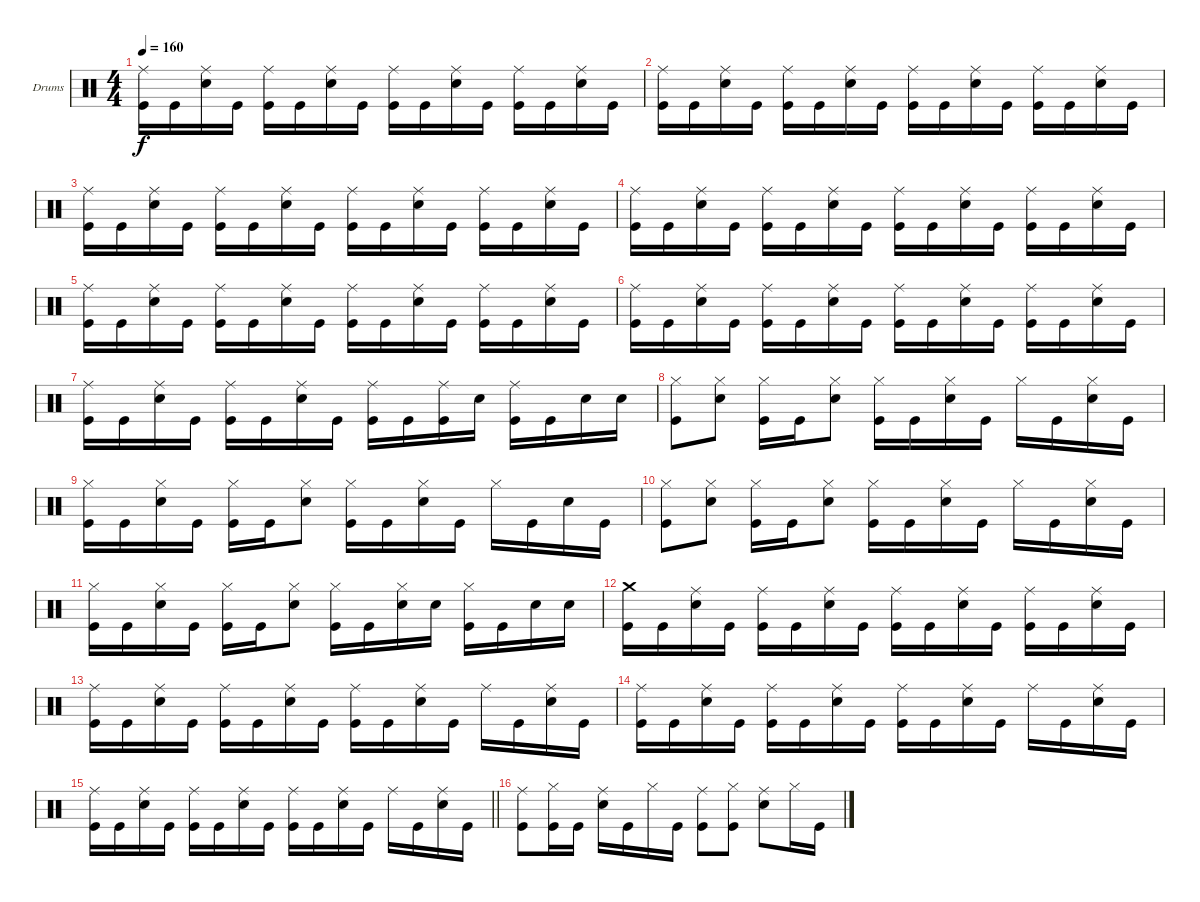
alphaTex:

\defaultSystemsLayout 4
\bracketExtendMode groupsimilarinstruments
\firstSystemTrackNameOrientation horizontal
\otherSystemsTrackNameOrientation horizontal
\track ("Drums" "Drums") {instrument percussion}
\staff {score}
\articulation defaults
\ts (4 4)
\tempo 160
\clef neutral
\ks aminor
("Kick (hit)" "Ride (middle)").16{dy f} "Kick (hit)".16 ("Snare (hit) 2" "Ride (middle)").16 "Kick (hit)".16 ("Kick (hit)" "Ride (middle)").16 "Kick (hit)".16 ("Snare (hit) 2" "Ride (middle)").16 "Kick (hit)".16 ("Kick (hit)" "Ride (middle)").16 "Kick (hit)".16 ("Snare (hit) 2" "Ride (middle)").16 "Kick (hit)".16 ("Kick (hit)" "Ride (middle)").16 "Kick (hit)".16 ("Snare (hit) 2" "Ride (middle)").16 "Kick (hit)".16 |
("Kick (hit)" "Ride (middle)").16 "Kick (hit)".16 ("Snare (hit) 2" "Ride (middle)").16 "Kick (hit)".16 ("Kick (hit)" "Ride (middle)").16 "Kick (hit)".16 ("Snare (hit) 2" "Ride (middle)").16 "Kick (hit)".16 ("Kick (hit)" "Ride (middle)").16 "Kick (hit)".16 ("Snare (hit) 2" "Ride (middle)").16 "Kick (hit)".16 ("Kick (hit)" "Ride (middle)").16 "Kick (hit)".16 ("Snare (hit) 2" "Ride (middle)").16 "Kick (hit)".16 |
("Kick (hit)" "Ride (middle)").16 "Kick (hit)".16 ("Snare (hit) 2" "Ride (middle)").16 "Kick (hit)".16 ("Kick (hit)" "Ride (middle)").16 "Kick (hit)".16 ("Snare (hit) 2" "Ride (middle)").16 "Kick (hit)".16 ("Kick (hit)" "Ride (middle)").16 "Kick (hit)".16 ("Snare (hit) 2" "Ride (middle)").16 "Kick (hit)".16 ("Kick (hit)" "Ride (middle)").16 "Kick (hit)".16 ("Snare (hit) 2" "Ride (middle)").16 "Kick (hit)".16 |
("Kick (hit)" "Ride (middle)").16 "Kick (hit)".16 ("Snare (hit) 2" "Ride (middle)").16 "Kick (hit)".16 ("Kick (hit)" "Ride (middle)").16 "Kick (hit)".16 ("Snare (hit) 2" "Ride (middle)").16 "Kick (hit)".16 ("Kick (hit)" "Ride (middle)").16 "Kick (hit)".16 ("Snare (hit) 2" "Ride (middle)").16 "Kick (hit)".16 ("Kick (hit)" "Ride (middle)").16 "Kick (hit)".16 ("Snare (hit) 2" "Ride (middle)").16 "Kick (hit)".16 |
("Kick (hit)" "Ride (middle)").16 "Kick (hit)".16 ("Snare (hit) 2" "Ride (middle)").16 "Kick (hit)".16 ("Kick (hit)" "Ride (middle)").16 "Kick (hit)".16 ("Snare (hit) 2" "Ride (middle)").16 "Kick (hit)".16 ("Kick (hit)" "Ride (middle)").16 "Kick (hit)".16 ("Snare (hit) 2" "Ride (middle)").16 "Kick (hit)".16 ("Kick (hit)" "Ride (middle)").16 "Kick (hit)".16 ("Snare (hit) 2" "Ride (middle)").16 "Kick (hit)".16 |
("Kick (hit)" "Ride (middle)").16 "Kick (hit)".16 ("Snare (hit) 2" "Ride (middle)").16 "Kick (hit)".16 ("Kick (hit)" "Ride (middle)").16 "Kick (hit)".16 ("Snare (hit) 2" "Ride (middle)").16 "Kick (hit)".16 ("Kick (hit)" "Ride (middle)").16 "Kick (hit)".16 ("Snare (hit) 2" "Ride (middle)").16 "Kick (hit)".16 ("Kick (hit)" "Ride (middle)").16 "Kick (hit)".16 ("Snare (hit) 2" "Ride (middle)").16 "Kick (hit)".16 |
("Kick (hit)" "Ride (middle)").16 "Kick (hit)".16 ("Snare (hit) 2" "Ride (middle)").16 "Kick (hit)".16 ("Kick (hit)" "Ride (middle)").16 "Kick (hit)".16 ("Snare (hit) 2" "Ride (middle)").16 "Kick (hit)".16 ("Ride (middle)" "Kick (hit)").16 "Kick (hit)".16 ("Kick (hit)" "Ride (middle)").16 "Snare (hit) 2".16 ("Kick (hit)" "Ride (middle)").16 "Kick (hit)".16 "Snare (hit) 2".16 "Snare (hit) 2".16 |
("Kick (hit)" "Hi-Hat (closed)").8 ("Snare (hit) 2" "Hi-Hat (closed)").8 ("Kick (hit)" "Hi-Hat (closed)").16 "Kick (hit)".16 ("Snare (hit) 2" "Hi-Hat (closed)").8 ("Kick (hit)" "Hi-Hat (closed)").16 "Kick (hit)".16 ("Snare (hit) 2" "Hi-Hat (closed)").16 "Kick (hit)".16 "Hi-Hat (closed)".16 "Kick (hit)".16 ("Snare (hit) 2" "Hi-Hat (closed)").16 "Kick (hit)".16 |
("Kick (hit)" "Hi-Hat (closed)").16 "Kick (hit)".16 ("Snare (hit) 2" "Hi-Hat (closed)").16 "Kick (hit)".16 ("Kick (hit)" "Hi-Hat (closed)").16 "Kick (hit)".16 ("Snare (hit) 2" "Hi-Hat (closed)").8 ("Kick (hit)" "Hi-Hat (closed)").16 "Kick (hit)".16 ("Snare (hit) 2" "Hi-Hat (closed)").16 "Kick (hit)".16 "Hi-Hat (closed)".16 "Kick (hit)".16 "Snare (hit) 2".16 "Kick (hit)".16 |
("Kick (hit)" "Hi-Hat (closed)").8 ("Snare (hit) 2" "Hi-Hat (closed)").8 ("Kick (hit)" "Hi-Hat (closed)").16 "Kick (hit)".16 ("Snare (hit) 2" "Hi-Hat (closed)").8 ("Kick (hit)" "Hi-Hat (closed)").16 "Kick (hit)".16 ("Snare (hit) 2" "Hi-Hat (closed)").16 "Kick (hit)".16 "Hi-Hat (closed)".16 "Kick (hit)".16 ("Snare (hit) 2" "Hi-Hat (closed)").16 "Kick (hit)".16 |
("Kick (hit)" "Hi-Hat (closed)").16 "Kick (hit)".16 ("Snare (hit) 2" "Hi-Hat (closed)").16 "Kick (hit)".16 ("Kick (hit)" "Hi-Hat (closed)").16 "Kick (hit)".16 ("Snare (hit) 2" "Hi-Hat (closed)").8 ("Kick (hit)" "Hi-Hat (closed)").16 "Kick (hit)".16 ("Snare (hit) 2" "Hi-Hat (closed)").16 "Snare (hit) 2".16 ("Hi-Hat (closed)" "Kick (hit)").16 "Kick (hit)".16 "Snare (hit) 2".16 "Snare (hit) 2".16 |
("Kick (hit)" "Crash medium (hit)").16 "Kick (hit)".16 ("Snare (hit) 2" "Ride (middle)").16 "Kick (hit)".16 ("Kick (hit)" "Ride (middle)").16 "Kick (hit)".16 ("Snare (hit) 2" "Ride (middle)").16 "Kick (hit)".16 ("Kick (hit)" "Ride (middle)").16 "Kick (hit)".16 ("Snare (hit) 2" "Ride (middle)").16 "Kick (hit)".16 ("Kick (hit)" "Ride (middle)").16 "Kick (hit)".16 ("Snare (hit) 2" "Ride (middle)").16 "Kick (hit)".16 |
("Kick (hit)" "Ride (middle)").16 "Kick (hit)".16 ("Snare (hit) 2" "Ride (middle)").16 "Kick (hit)".16 ("Kick (hit)" "Ride (middle)").16 "Kick (hit)".16 ("Snare (hit) 2" "Ride (middle)").16 "Kick (hit)".16 ("Kick (hit)" "Ride (middle)").16 "Kick (hit)".16 ("Snare (hit) 2" "Ride (middle)").16 "Kick (hit)".16 "Ride (middle)".16 "Kick (hit)".16 ("Snare (hit) 2" "Ride (middle)").16 "Kick (hit)".16 |
("Kick (hit)" "Ride (middle)").16 "Kick (hit)".16 ("Snare (hit) 2" "Ride (middle)").16 "Kick (hit)".16 ("Kick (hit)" "Ride (middle)").16 "Kick (hit)".16 ("Snare (hit) 2" "Ride (middle)").16 "Kick (hit)".16 ("Kick (hit)" "Ride (middle)").16 "Kick (hit)".16 ("Snare (hit) 2" "Ride (middle)").16 "Kick (hit)".16 "Ride (middle)".16 "Kick (hit)".16 ("Snare (hit) 2" "Ride (middle)").16 "Kick (hit)".16 |
\barLineRight lightlight
("Kick (hit)" "Ride (middle)").16 "Kick (hit)".16 ("Snare (hit) 2" "Ride (middle)").16 "Kick (hit)".16 ("Kick (hit)" "Ride (middle)").16 "Kick (hit)".16 ("Snare (hit) 2" "Ride (middle)").16 "Kick (hit)".16 ("Kick (hit)" "Ride (middle)").16 "Kick (hit)".16 ("Snare (hit) 2" "Ride (middle)").16 "Kick (hit)".16 "Ride (middle)".16 "Kick (hit)".16 ("Snare (hit) 2" "Ride (middle)").16 "Kick (hit)".16 |
("Kick (hit)" "Ride (middle)").8 ("Kick (hit)" "Hi-Hat (closed)").16 "Kick (hit)".16 ("Snare (hit) 2" "Ride (middle)").16 "Kick (hit)".16 "Hi-Hat (closed)".16 "Kick (hit)".16 ("Kick (hit)" "Ride (middle)").8 ("Kick (hit)" "Hi-Hat (closed)").8 ("Snare (hit) 2" "Ride (middle)").8 "Hi-Hat (closed)".16 "Kick (hit)".16
